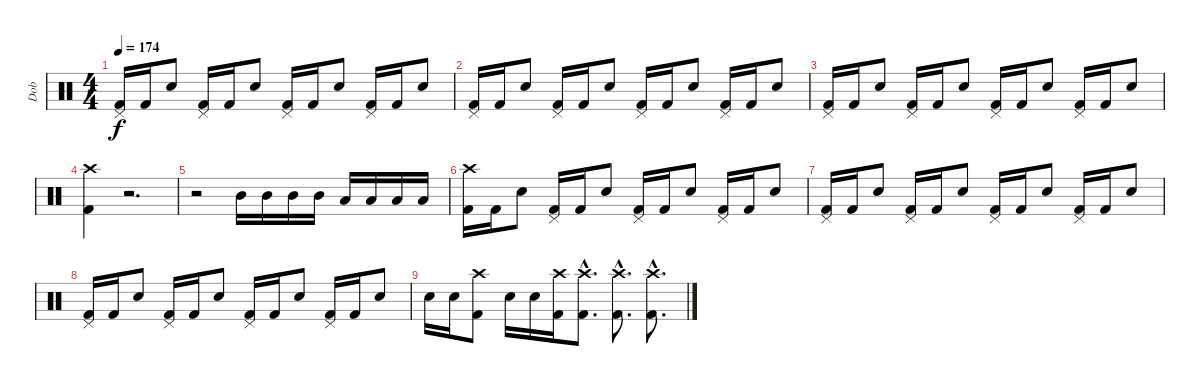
\track ("Dob" "Dob") {instrument percussion}
\staff {score}
\articulation defaults
\ts (4 4)
\tempo 174
\clef neutral
\ks c
("Pedal Hi-Hat (hit)" "Kick (hit) 2").16{dy f} "Kick (hit) 2".16 "Snare (hit) 2".8 ("Pedal Hi-Hat (hit)" "Kick (hit) 2").16 "Kick (hit) 2".16 "Snare (hit) 2".8 ("Pedal Hi-Hat (hit)" "Kick (hit) 2").16 "Kick (hit) 2".16 "Snare (hit) 2".8 ("Pedal Hi-Hat (hit)" "Kick (hit) 2").16 "Kick (hit) 2".16 "Snare (hit) 2".8 |
("Pedal Hi-Hat (hit)" "Kick (hit) 2").16 "Kick (hit) 2".16 "Snare (hit) 2".8 ("Pedal Hi-Hat (hit)" "Kick (hit) 2").16 "Kick (hit) 2".16 "Snare (hit) 2".8 ("Pedal Hi-Hat (hit)" "Kick (hit) 2").16 "Kick (hit) 2".16 "Snare (hit) 2".8 ("Pedal Hi-Hat (hit)" "Kick (hit) 2").16 "Kick (hit) 2".16 "Snare (hit) 2".8 |
("Pedal Hi-Hat (hit)" "Kick (hit) 2").16 "Kick (hit) 2".16 "Snare (hit) 2".8 ("Pedal Hi-Hat (hit)" "Kick (hit) 2").16 "Kick (hit) 2".16 "Snare (hit) 2".8 ("Pedal Hi-Hat (hit)" "Kick (hit) 2").16 "Kick (hit) 2".16 "Snare (hit) 2".8 ("Pedal Hi-Hat (hit)" "Kick (hit) 2").16 "Kick (hit) 2".16 "Snare (hit) 2".8 |
("Crash high (hit)" "Kick (hit) 2").4 r.2{d} |
r.2 "Mid Tom (hit)".16 "Mid Tom (hit)".16 "Mid Tom (hit)".16 "Mid Tom (hit)".16 "Low Tom (hit)".16 "Low Tom (hit)".16 "Low Tom (hit)".16 "Low Tom (hit)".16 |
("Crash high (hit)" "Kick (hit) 2").16 "Kick (hit) 2".16 "Snare (hit) 2".8 ("Pedal Hi-Hat (hit)" "Kick (hit) 2").16 "Kick (hit) 2".16 "Snare (hit) 2".8 ("Pedal Hi-Hat (hit)" "Kick (hit) 2").16 "Kick (hit) 2".16 "Snare (hit) 2".8 ("Pedal Hi-Hat (hit)" "Kick (hit) 2").16 "Kick (hit) 2".16 "Snare (hit) 2".8 |
("Pedal Hi-Hat (hit)" "Kick (hit) 2").16 "Kick (hit) 2".16 "Snare (hit) 2".8 ("Pedal Hi-Hat (hit)" "Kick (hit) 2").16 "Kick (hit) 2".16 "Snare (hit) 2".8 ("Pedal Hi-Hat (hit)" "Kick (hit) 2").16 "Kick (hit) 2".16 "Snare (hit) 2".8 ("Pedal Hi-Hat (hit)" "Kick (hit) 2").16 "Kick (hit) 2".16 "Snare (hit) 2".8 |
("Pedal Hi-Hat (hit)" "Kick (hit) 2").16 "Kick (hit) 2".16 "Snare (hit) 2".8 ("Pedal Hi-Hat (hit)" "Kick (hit) 2").16 "Kick (hit) 2".16 "Snare (hit) 2".8 ("Pedal Hi-Hat (hit)" "Kick (hit) 2").16 "Kick (hit) 2".16 "Snare (hit) 2".8 ("Pedal Hi-Hat (hit)" "Kick (hit) 2").16 "Kick (hit) 2".16 "Snare (hit) 2".8 |
"Electric Snare (hit)".16 "Electric Snare (hit)".16 ("Crash high (hit)" "Kick (hit) 2").8 "Electric Snare (hit)".16 "Electric Snare (hit)".16 ("Crash high (hit)" "Kick (hit) 2").16 ("Crash high (hit)"{hac} "Kick (hit) 2"{hac}).8{d} ("Crash high (hit)"{hac} "Kick (hit) 2"{hac}).8{d} ("Crash high (hit)"{hac} "Kick (hit) 2"{hac}).8{d}
